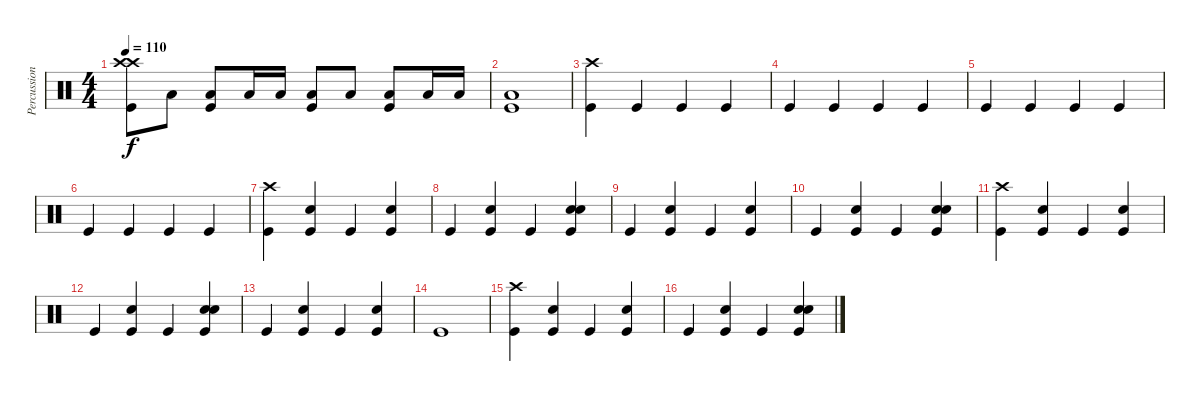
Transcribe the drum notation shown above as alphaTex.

\track ("Percussion" "Percussion") {instrument percussion}
\staff {score}
\articulation defaults
\ts (4 4)
\tempo 110
\clef neutral
\ks c
("Crash high (hit)" "Kick (hit)" "Crash high (hit)").8{dy f} "Low Floor Tom (hit)".8 ("Kick (hit)" "Low Floor Tom (hit)").8 "Low Floor Tom (hit)".16 "Low Floor Tom (hit)".16 ("Kick (hit)" "Low Floor Tom (hit)").8 "Low Floor Tom (hit)".8 ("Low Floor Tom (hit)" "Kick (hit)").8 "Low Floor Tom (hit)".16 "Low Floor Tom (hit)".16 |
("Kick (hit)" "Low Floor Tom (hit)").1 |
("Kick (hit)" "Crash high (hit)").4 "Kick (hit)".4 "Kick (hit)".4 "Kick (hit)".4 |
"Kick (hit)".4 "Kick (hit)".4 "Kick (hit)".4 "Kick (hit)".4 |
"Kick (hit)".4 "Kick (hit)".4 "Kick (hit)".4 "Kick (hit)".4 |
"Kick (hit)".4 "Kick (hit)".4 "Kick (hit)".4 "Kick (hit)".4 |
("Crash high (hit)" "Kick (hit)").4 ("Snare (hit) 2" "Kick (hit)").4 "Kick (hit)".4 ("Snare (hit) 2" "Kick (hit)").4 |
"Kick (hit)".4 ("Snare (hit) 2" "Kick (hit)").4 "Kick (hit)".4 ("Hand Clap (hit)" "Snare (hit) 2" "Kick (hit)").4 |
"Kick (hit)".4 ("Snare (hit) 2" "Kick (hit)").4 "Kick (hit)".4 ("Kick (hit)" "Snare (hit) 2").4 |
"Kick (hit)".4 ("Snare (hit) 2" "Kick (hit)").4 "Kick (hit)".4 ("Kick (hit)" "Snare (hit) 2" "Hand Clap (hit)").4 |
("Crash high (hit)" "Kick (hit)").4 ("Snare (hit) 2" "Kick (hit)").4 "Kick (hit)".4 ("Snare (hit) 2" "Kick (hit)").4 |
"Kick (hit)".4 ("Snare (hit) 2" "Kick (hit)").4 "Kick (hit)".4 ("Hand Clap (hit)" "Snare (hit) 2" "Kick (hit)").4 |
"Kick (hit)".4 ("Snare (hit) 2" "Kick (hit)").4 "Kick (hit)".4 ("Kick (hit)" "Snare (hit) 2").4 |
"Kick (hit)".1 |
("Crash high (hit)" "Kick (hit)").4 ("Snare (hit) 2" "Kick (hit)").4 "Kick (hit)".4 ("Snare (hit) 2" "Kick (hit)").4 |
"Kick (hit)".4 ("Snare (hit) 2" "Kick (hit)").4 "Kick (hit)".4 ("Hand Clap (hit)" "Snare (hit) 2" "Kick (hit)").4
